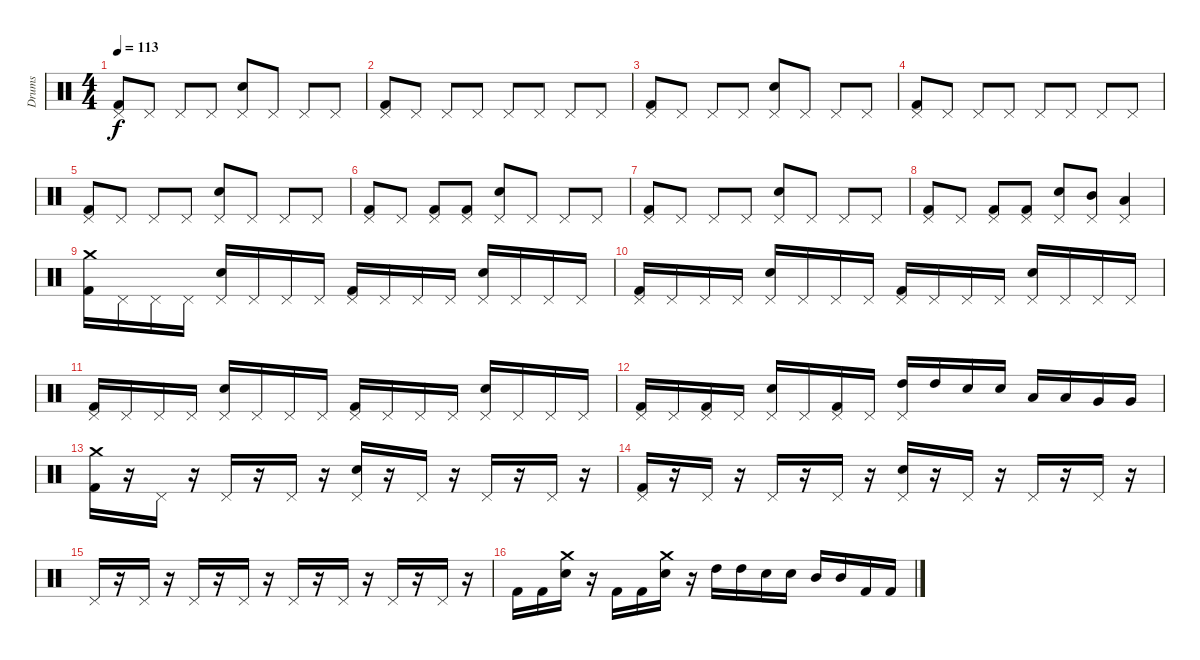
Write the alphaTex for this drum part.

\track ("Drums" "Drums") {instrument percussion}
\staff {score}
\articulation defaults
\ts (4 4)
\tempo 113
\clef neutral
\ks c
("Pedal Hi-Hat (hit)" "Kick (hit) 2").8{dy f} "Pedal Hi-Hat (hit)".8 "Pedal Hi-Hat (hit)".8 "Pedal Hi-Hat (hit)".8 ("Pedal Hi-Hat (hit)" "Snare (hit) 2").8 "Pedal Hi-Hat (hit)".8 "Pedal Hi-Hat (hit)".8 "Pedal Hi-Hat (hit)".8 |
("Pedal Hi-Hat (hit)" "Kick (hit) 2").8 "Pedal Hi-Hat (hit)".8 "Pedal Hi-Hat (hit)".8 "Pedal Hi-Hat (hit)".8 "Pedal Hi-Hat (hit)".8 "Pedal Hi-Hat (hit)".8 "Pedal Hi-Hat (hit)".8 "Pedal Hi-Hat (hit)".8 |
("Pedal Hi-Hat (hit)" "Kick (hit) 2").8 "Pedal Hi-Hat (hit)".8 "Pedal Hi-Hat (hit)".8 "Pedal Hi-Hat (hit)".8 ("Pedal Hi-Hat (hit)" "Snare (hit) 2").8 "Pedal Hi-Hat (hit)".8 "Pedal Hi-Hat (hit)".8 "Pedal Hi-Hat (hit)".8 |
("Pedal Hi-Hat (hit)" "Kick (hit) 2").8 "Pedal Hi-Hat (hit)".8 "Pedal Hi-Hat (hit)".8 "Pedal Hi-Hat (hit)".8 "Pedal Hi-Hat (hit)".8 "Pedal Hi-Hat (hit)".8 "Pedal Hi-Hat (hit)".8 "Pedal Hi-Hat (hit)".8 |
("Pedal Hi-Hat (hit)" "Kick (hit) 2").8 "Pedal Hi-Hat (hit)".8 "Pedal Hi-Hat (hit)".8 "Pedal Hi-Hat (hit)".8 ("Pedal Hi-Hat (hit)" "Snare (hit) 2").8 "Pedal Hi-Hat (hit)".8 "Pedal Hi-Hat (hit)".8 "Pedal Hi-Hat (hit)".8 |
("Pedal Hi-Hat (hit)" "Kick (hit) 2").8 "Pedal Hi-Hat (hit)".8 ("Pedal Hi-Hat (hit)" "Kick (hit) 2").8 ("Pedal Hi-Hat (hit)" "Kick (hit) 2").8 ("Pedal Hi-Hat (hit)" "Snare (hit) 2").8 "Pedal Hi-Hat (hit)".8 "Pedal Hi-Hat (hit)".8 "Pedal Hi-Hat (hit)".8 |
("Pedal Hi-Hat (hit)" "Kick (hit) 2").8 "Pedal Hi-Hat (hit)".8 "Pedal Hi-Hat (hit)".8 "Pedal Hi-Hat (hit)".8 ("Pedal Hi-Hat (hit)" "Snare (hit) 2").8 "Pedal Hi-Hat (hit)".8 "Pedal Hi-Hat (hit)".8 "Pedal Hi-Hat (hit)".8 |
("Pedal Hi-Hat (hit)" "Kick (hit) 2").8 "Pedal Hi-Hat (hit)".8 ("Pedal Hi-Hat (hit)" "Kick (hit) 2").8 ("Pedal Hi-Hat (hit)" "Kick (hit) 2").8 ("Pedal Hi-Hat (hit)" "Snare (hit) 2").8 ("Pedal Hi-Hat (hit)" "Mid Tom (hit)").8 ("Pedal Hi-Hat (hit)" "Low Tom (hit)").4 |
("Crash medium (hit)" "Kick (hit) 2").16 "Pedal Hi-Hat (hit)".16 "Pedal Hi-Hat (hit)".16 "Pedal Hi-Hat (hit)".16 ("Pedal Hi-Hat (hit)" "Snare (hit) 2").16 "Pedal Hi-Hat (hit)".16 "Pedal Hi-Hat (hit)".16 "Pedal Hi-Hat (hit)".16 ("Pedal Hi-Hat (hit)" "Kick (hit) 2").16 "Pedal Hi-Hat (hit)".16 "Pedal Hi-Hat (hit)".16 "Pedal Hi-Hat (hit)".16 ("Pedal Hi-Hat (hit)" "Snare (hit) 2").16 "Pedal Hi-Hat (hit)".16 "Pedal Hi-Hat (hit)".16 "Pedal Hi-Hat (hit)".16 |
("Pedal Hi-Hat (hit)" "Kick (hit) 2").16 "Pedal Hi-Hat (hit)".16 "Pedal Hi-Hat (hit)".16 "Pedal Hi-Hat (hit)".16 ("Pedal Hi-Hat (hit)" "Snare (hit) 2").16 "Pedal Hi-Hat (hit)".16 "Pedal Hi-Hat (hit)".16 "Pedal Hi-Hat (hit)".16 ("Pedal Hi-Hat (hit)" "Kick (hit) 2").16 "Pedal Hi-Hat (hit)".16 "Pedal Hi-Hat (hit)".16 "Pedal Hi-Hat (hit)".16 ("Pedal Hi-Hat (hit)" "Snare (hit) 2").16 "Pedal Hi-Hat (hit)".16 "Pedal Hi-Hat (hit)".16 "Pedal Hi-Hat (hit)".16 |
("Pedal Hi-Hat (hit)" "Kick (hit) 2").16 "Pedal Hi-Hat (hit)".16 "Pedal Hi-Hat (hit)".16 "Pedal Hi-Hat (hit)".16 ("Pedal Hi-Hat (hit)" "Snare (hit) 2").16 "Pedal Hi-Hat (hit)".16 "Pedal Hi-Hat (hit)".16 "Pedal Hi-Hat (hit)".16 ("Pedal Hi-Hat (hit)" "Kick (hit) 2").16 "Pedal Hi-Hat (hit)".16 "Pedal Hi-Hat (hit)".16 "Pedal Hi-Hat (hit)".16 ("Pedal Hi-Hat (hit)" "Snare (hit) 2").16 "Pedal Hi-Hat (hit)".16 "Pedal Hi-Hat (hit)".16 "Pedal Hi-Hat (hit)".16 |
("Pedal Hi-Hat (hit)" "Kick (hit) 2").16 "Pedal Hi-Hat (hit)".16 ("Pedal Hi-Hat (hit)" "Kick (hit) 2").16 "Pedal Hi-Hat (hit)".16 ("Pedal Hi-Hat (hit)" "Snare (hit) 2").16 "Pedal Hi-Hat (hit)".16 ("Pedal Hi-Hat (hit)" "Kick (hit) 2").16 "Pedal Hi-Hat (hit)".16 ("Pedal Hi-Hat (hit)" "High Tom (hit)").16 "High Tom (hit)".16 "Snare (hit) 2".16 "Snare (hit) 2".16 "Low Tom (hit)".16 "Low Tom (hit)".16 "Very Low Tom (hit)".16 "Very Low Tom (hit)".16 |
("Crash medium (hit)" "Kick (hit) 2").16 r.16 "Pedal Hi-Hat (hit)".16 r.16 "Pedal Hi-Hat (hit)".16 r.16 "Pedal Hi-Hat (hit)".16 r.16 ("Pedal Hi-Hat (hit)" "Snare (hit) 2").16 r.16 "Pedal Hi-Hat (hit)".16 r.16 "Pedal Hi-Hat (hit)".16 r.16 "Pedal Hi-Hat (hit)".16 r.16 |
("Pedal Hi-Hat (hit)" "Kick (hit) 2").16 r.16 "Pedal Hi-Hat (hit)".16 r.16 "Pedal Hi-Hat (hit)".16 r.16 "Pedal Hi-Hat (hit)".16 r.16 ("Pedal Hi-Hat (hit)" "Snare (hit) 2").16 r.16 "Pedal Hi-Hat (hit)".16 r.16 "Pedal Hi-Hat (hit)".16 r.16 "Pedal Hi-Hat (hit)".16 r.16 |
"Pedal Hi-Hat (hit)".16 r.16 "Pedal Hi-Hat (hit)".16 r.16 "Pedal Hi-Hat (hit)".16 r.16 "Pedal Hi-Hat (hit)".16 r.16 "Pedal Hi-Hat (hit)".16 r.16 "Pedal Hi-Hat (hit)".16 r.16 "Pedal Hi-Hat (hit)".16 r.16 "Pedal Hi-Hat (hit)".16 r.16 |
"Kick (hit) 2".16 "Kick (hit) 2".16 ("Crash medium (hit)" "Snare (hit) 2").16 r.16 "Kick (hit) 2".16 "Kick (hit) 2".16 ("Crash medium (hit)" "Snare (hit) 2").16 r.16 "High Tom (hit)".16 "High Tom (hit)".16 "Snare (hit) 2".16 "Snare (hit) 2".16 "Mid Tom (hit)".16 "Mid Tom (hit)".16 "Kick (hit) 2".16 "Kick (hit) 2".16
